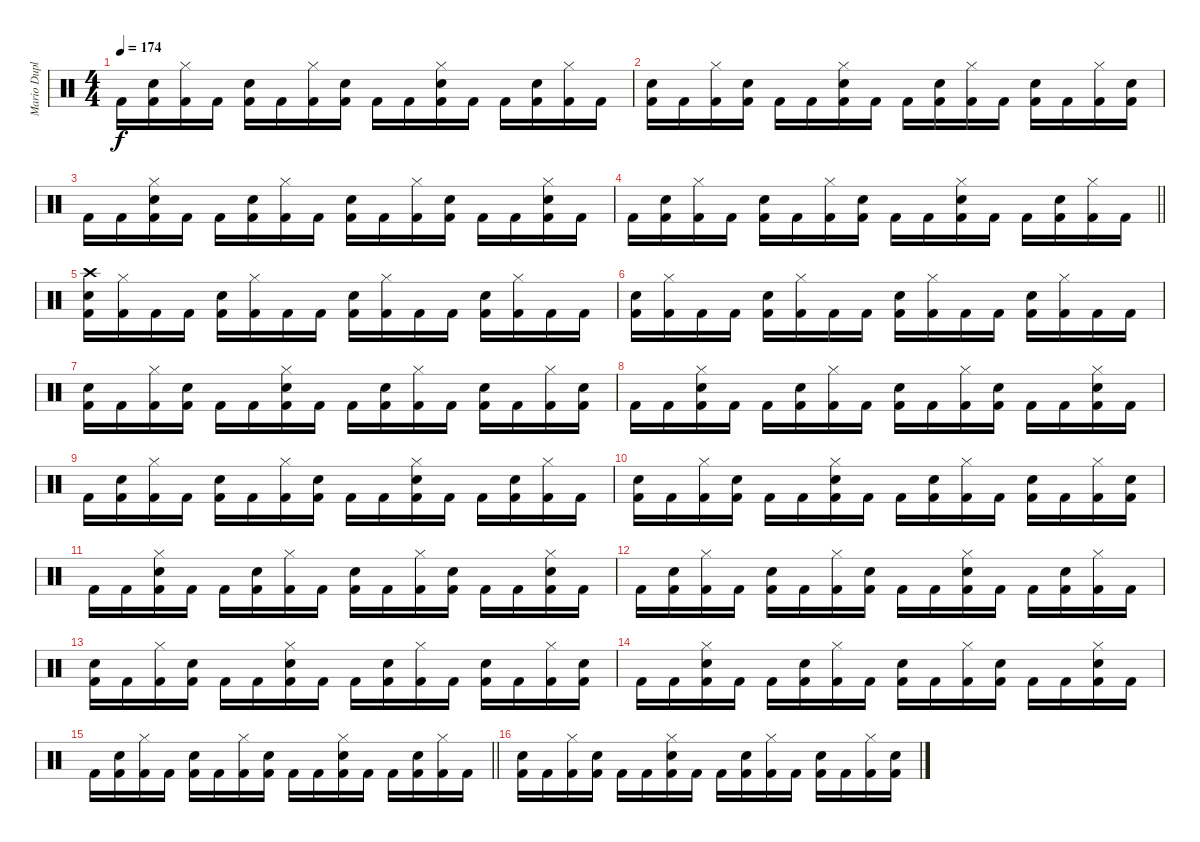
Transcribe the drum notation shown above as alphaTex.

\track ("Mario Duplantier - DRUMS" "Mario Dupl") {instrument percussion}
\staff {score}
\articulation defaults
\ts (4 4)
\tempo 174
\clef neutral
\ks c "Kick (hit) 2".16{dy f}
("Electric Snare (hit)" "Kick (hit) 2").16 ("Hi-Hat (closed)" "Kick (hit) 2").16 "Kick (hit) 2".16 ("Electric Snare (hit)" "Kick (hit) 2").16 "Kick (hit) 2".16 ("Hi-Hat (closed)" "Kick (hit) 2").16 ("Electric Snare (hit)" "Kick (hit) 2").16 "Kick (hit) 2".16 "Kick (hit) 2".16 ("Hi-Hat (closed)" "Electric Snare (hit)" "Kick (hit) 2").16 "Kick (hit) 2".16 "Kick (hit) 2".16 ("Electric Snare (hit)" "Kick (hit) 2").16 ("Hi-Hat (closed)" "Kick (hit) 2").16 "Kick (hit) 2".16 |
("Electric Snare (hit)" "Kick (hit) 2").16 "Kick (hit) 2".16 ("Hi-Hat (closed)" "Kick (hit) 2").16 ("Electric Snare (hit)" "Kick (hit) 2").16 "Kick (hit) 2".16 "Kick (hit) 2".16 ("Hi-Hat (closed)" "Electric Snare (hit)" "Kick (hit) 2").16 "Kick (hit) 2".16 "Kick (hit) 2".16 ("Electric Snare (hit)" "Kick (hit) 2").16 ("Hi-Hat (closed)" "Kick (hit) 2").16 "Kick (hit) 2".16 ("Electric Snare (hit)" "Kick (hit) 2").16 "Kick (hit) 2".16 ("Hi-Hat (closed)" "Kick (hit) 2").16 ("Electric Snare (hit)" "Kick (hit) 2").16 |
"Kick (hit) 2".16 "Kick (hit) 2".16 ("Hi-Hat (closed)" "Electric Snare (hit)" "Kick (hit) 2").16 "Kick (hit) 2".16 "Kick (hit) 2".16 ("Electric Snare (hit)" "Kick (hit) 2").16 ("Hi-Hat (closed)" "Kick (hit) 2").16 "Kick (hit) 2".16 ("Electric Snare (hit)" "Kick (hit) 2").16 "Kick (hit) 2".16 ("Hi-Hat (closed)" "Kick (hit) 2").16 ("Electric Snare (hit)" "Kick (hit) 2").16 "Kick (hit) 2".16 "Kick (hit) 2".16 ("Hi-Hat (closed)" "Electric Snare (hit)" "Kick (hit) 2").16 "Kick (hit) 2".16 |
\barLineRight lightlight "Kick (hit) 2".16
("Electric Snare (hit)" "Kick (hit) 2").16 ("Hi-Hat (closed)" "Kick (hit) 2").16 "Kick (hit) 2".16 ("Electric Snare (hit)" "Kick (hit) 2").16 "Kick (hit) 2".16 ("Hi-Hat (closed)" "Kick (hit) 2").16 ("Electric Snare (hit)" "Kick (hit) 2").16 "Kick (hit) 2".16 "Kick (hit) 2".16 ("Hi-Hat (closed)" "Electric Snare (hit)" "Kick (hit) 2").16 "Kick (hit) 2".16 "Kick (hit) 2".16 ("Electric Snare (hit)" "Kick (hit) 2").16 ("Hi-Hat (closed)" "Kick (hit) 2").16 "Kick (hit) 2".16 |
\section ("" "")
("Crash high (hit)" "Electric Snare (hit)" "Kick (hit) 2").16 ("Hi-Hat (closed)" "Kick (hit) 2").16 "Kick (hit) 2".16 "Kick (hit) 2".16 ("Electric Snare (hit)" "Kick (hit) 2").16 ("Hi-Hat (closed)" "Kick (hit) 2").16 "Kick (hit) 2".16 "Kick (hit) 2".16 ("Electric Snare (hit)" "Kick (hit) 2").16 ("Hi-Hat (closed)" "Kick (hit) 2").16 "Kick (hit) 2".16 "Kick (hit) 2".16 ("Electric Snare (hit)" "Kick (hit) 2").16 ("Hi-Hat (closed)" "Kick (hit) 2").16 "Kick (hit) 2".16 "Kick (hit) 2".16 |
("Electric Snare (hit)" "Kick (hit) 2").16 ("Hi-Hat (closed)" "Kick (hit) 2").16 "Kick (hit) 2".16 "Kick (hit) 2".16 ("Electric Snare (hit)" "Kick (hit) 2").16 ("Hi-Hat (closed)" "Kick (hit) 2").16 "Kick (hit) 2".16 "Kick (hit) 2".16 ("Electric Snare (hit)" "Kick (hit) 2").16 ("Hi-Hat (closed)" "Kick (hit) 2").16 "Kick (hit) 2".16 "Kick (hit) 2".16 ("Electric Snare (hit)" "Kick (hit) 2").16 ("Hi-Hat (closed)" "Kick (hit) 2").16 "Kick (hit) 2".16 "Kick (hit) 2".16 |
("Electric Snare (hit)" "Kick (hit) 2").16 "Kick (hit) 2".16 ("Hi-Hat (closed)" "Kick (hit) 2").16 ("Electric Snare (hit)" "Kick (hit) 2").16 "Kick (hit) 2".16 "Kick (hit) 2".16 ("Hi-Hat (closed)" "Electric Snare (hit)" "Kick (hit) 2").16 "Kick (hit) 2".16 "Kick (hit) 2".16 ("Electric Snare (hit)" "Kick (hit) 2").16 ("Hi-Hat (closed)" "Kick (hit) 2").16 "Kick (hit) 2".16 ("Electric Snare (hit)" "Kick (hit) 2").16 "Kick (hit) 2".16 ("Hi-Hat (closed)" "Kick (hit) 2").16 ("Electric Snare (hit)" "Kick (hit) 2").16 |
"Kick (hit) 2".16 "Kick (hit) 2".16 ("Hi-Hat (closed)" "Electric Snare (hit)" "Kick (hit) 2").16 "Kick (hit) 2".16 "Kick (hit) 2".16 ("Electric Snare (hit)" "Kick (hit) 2").16 ("Hi-Hat (closed)" "Kick (hit) 2").16 "Kick (hit) 2".16 ("Electric Snare (hit)" "Kick (hit) 2").16 "Kick (hit) 2".16 ("Hi-Hat (closed)" "Kick (hit) 2").16 ("Electric Snare (hit)" "Kick (hit) 2").16 "Kick (hit) 2".16 "Kick (hit) 2".16 ("Hi-Hat (closed)" "Electric Snare (hit)" "Kick (hit) 2").16 "Kick (hit) 2".16 |
"Kick (hit) 2".16 ("Electric Snare (hit)" "Kick (hit) 2").16 ("Hi-Hat (closed)" "Kick (hit) 2").16 "Kick (hit) 2".16 ("Electric Snare (hit)" "Kick (hit) 2").16 "Kick (hit) 2".16 ("Hi-Hat (closed)" "Kick (hit) 2").16 ("Electric Snare (hit)" "Kick (hit) 2").16 "Kick (hit) 2".16 "Kick (hit) 2".16 ("Hi-Hat (closed)" "Electric Snare (hit)" "Kick (hit) 2").16 "Kick (hit) 2".16 "Kick (hit) 2".16 ("Electric Snare (hit)" "Kick (hit) 2").16 ("Hi-Hat (closed)" "Kick (hit) 2").16 "Kick (hit) 2".16 |
("Electric Snare (hit)" "Kick (hit) 2").16 "Kick (hit) 2".16 ("Hi-Hat (closed)" "Kick (hit) 2").16 ("Electric Snare (hit)" "Kick (hit) 2").16 "Kick (hit) 2".16 "Kick (hit) 2".16 ("Hi-Hat (closed)" "Electric Snare (hit)" "Kick (hit) 2").16 "Kick (hit) 2".16 "Kick (hit) 2".16 ("Electric Snare (hit)" "Kick (hit) 2").16 ("Hi-Hat (closed)" "Kick (hit) 2").16 "Kick (hit) 2".16 ("Electric Snare (hit)" "Kick (hit) 2").16 "Kick (hit) 2".16 ("Hi-Hat (closed)" "Kick (hit) 2").16 ("Electric Snare (hit)" "Kick (hit) 2").16 |
"Kick (hit) 2".16 "Kick (hit) 2".16 ("Hi-Hat (closed)" "Electric Snare (hit)" "Kick (hit) 2").16 "Kick (hit) 2".16 "Kick (hit) 2".16 ("Electric Snare (hit)" "Kick (hit) 2").16 ("Hi-Hat (closed)" "Kick (hit) 2").16 "Kick (hit) 2".16 ("Electric Snare (hit)" "Kick (hit) 2").16 "Kick (hit) 2".16 ("Hi-Hat (closed)" "Kick (hit) 2").16 ("Electric Snare (hit)" "Kick (hit) 2").16 "Kick (hit) 2".16 "Kick (hit) 2".16 ("Hi-Hat (closed)" "Electric Snare (hit)" "Kick (hit) 2").16 "Kick (hit) 2".16 |
"Kick (hit) 2".16 ("Electric Snare (hit)" "Kick (hit) 2").16 ("Hi-Hat (closed)" "Kick (hit) 2").16 "Kick (hit) 2".16 ("Electric Snare (hit)" "Kick (hit) 2").16 "Kick (hit) 2".16 ("Hi-Hat (closed)" "Kick (hit) 2").16 ("Electric Snare (hit)" "Kick (hit) 2").16 "Kick (hit) 2".16 "Kick (hit) 2".16 ("Hi-Hat (closed)" "Electric Snare (hit)" "Kick (hit) 2").16 "Kick (hit) 2".16 "Kick (hit) 2".16 ("Electric Snare (hit)" "Kick (hit) 2").16 ("Hi-Hat (closed)" "Kick (hit) 2").16 "Kick (hit) 2".16 |
("Electric Snare (hit)" "Kick (hit) 2").16 "Kick (hit) 2".16 ("Hi-Hat (closed)" "Kick (hit) 2").16 ("Electric Snare (hit)" "Kick (hit) 2").16 "Kick (hit) 2".16 "Kick (hit) 2".16 ("Hi-Hat (closed)" "Electric Snare (hit)" "Kick (hit) 2").16 "Kick (hit) 2".16 "Kick (hit) 2".16 ("Electric Snare (hit)" "Kick (hit) 2").16 ("Hi-Hat (closed)" "Kick (hit) 2").16 "Kick (hit) 2".16 ("Electric Snare (hit)" "Kick (hit) 2").16 "Kick (hit) 2".16 ("Hi-Hat (closed)" "Kick (hit) 2").16 ("Electric Snare (hit)" "Kick (hit) 2").16 |
"Kick (hit) 2".16 "Kick (hit) 2".16 ("Hi-Hat (closed)" "Electric Snare (hit)" "Kick (hit) 2").16 "Kick (hit) 2".16 "Kick (hit) 2".16 ("Electric Snare (hit)" "Kick (hit) 2").16 ("Hi-Hat (closed)" "Kick (hit) 2").16 "Kick (hit) 2".16 ("Electric Snare (hit)" "Kick (hit) 2").16 "Kick (hit) 2".16 ("Hi-Hat (closed)" "Kick (hit) 2").16 ("Electric Snare (hit)" "Kick (hit) 2").16 "Kick (hit) 2".16 "Kick (hit) 2".16 ("Hi-Hat (closed)" "Electric Snare (hit)" "Kick (hit) 2").16 "Kick (hit) 2".16 |
\barLineRight lightlight "Kick (hit) 2".16
("Electric Snare (hit)" "Kick (hit) 2").16 ("Hi-Hat (closed)" "Kick (hit) 2").16 "Kick (hit) 2".16 ("Electric Snare (hit)" "Kick (hit) 2").16 "Kick (hit) 2".16 ("Hi-Hat (closed)" "Kick (hit) 2").16 ("Electric Snare (hit)" "Kick (hit) 2").16 "Kick (hit) 2".16 "Kick (hit) 2".16 ("Hi-Hat (closed)" "Electric Snare (hit)" "Kick (hit) 2").16 "Kick (hit) 2".16 "Kick (hit) 2".16 ("Electric Snare (hit)" "Kick (hit) 2").16 ("Hi-Hat (closed)" "Kick (hit) 2").16 "Kick (hit) 2".16 |
("Electric Snare (hit)" "Kick (hit) 2").16 "Kick (hit) 2".16 ("Hi-Hat (closed)" "Kick (hit) 2").16 ("Electric Snare (hit)" "Kick (hit) 2").16 "Kick (hit) 2".16 "Kick (hit) 2".16 ("Hi-Hat (closed)" "Electric Snare (hit)" "Kick (hit) 2").16 "Kick (hit) 2".16 "Kick (hit) 2".16 ("Electric Snare (hit)" "Kick (hit) 2").16 ("Hi-Hat (closed)" "Kick (hit) 2").16 "Kick (hit) 2".16 ("Electric Snare (hit)" "Kick (hit) 2").16 "Kick (hit) 2".16 ("Hi-Hat (closed)" "Kick (hit) 2").16 ("Electric Snare (hit)" "Kick (hit) 2").16
